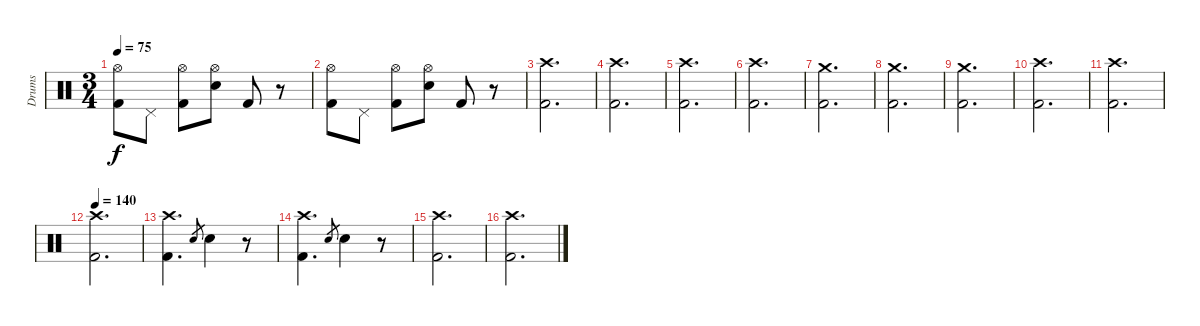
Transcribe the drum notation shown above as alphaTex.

\track ("Drums" "Drums") {instrument percussion}
\staff {score}
\articulation defaults
\ts (3 4)
\tempo 75
\clef neutral
\ks c
("Hi-Hat (open)" "Kick (hit) 2").8{dy f} "Pedal Hi-Hat (hit)".8 ("Hi-Hat (open)" "Kick (hit) 2").8 ("Hi-Hat (open)" "Electric Snare (hit)").8 "Kick (hit) 2".8 r.8 |
("Hi-Hat (open)" "Kick (hit) 2").8 "Pedal Hi-Hat (hit)".8 ("Hi-Hat (open)" "Kick (hit) 2").8 ("Hi-Hat (open)" "Electric Snare (hit)").8 "Kick (hit) 2".8 r.8 |
("Crash high (hit)" "Kick (hit) 2").2{d} |
("Crash high (hit)" "Kick (hit) 2").2{d} |
("Crash high (hit)" "Kick (hit) 2").2{d} |
("Crash high (hit)" "Kick (hit) 2").2{d} |
("Crash medium (hit)" "Kick (hit) 2").2{d} |
("Crash medium (hit)" "Kick (hit) 2").2{d} |
("Crash medium (hit)" "Kick (hit) 2").2{d} |
("Crash high (hit)" "Kick (hit) 2").2{d} |
("Crash high (hit)" "Kick (hit) 2").2{d} |
\tempo 140
("Crash high (hit)" "Kick (hit) 2").2{d} |
("Crash high (hit)" "Kick (hit) 2").4{d} "Electric Snare (hit)".8{gr} "Electric Snare (hit)".4 r.8 |
("Crash high (hit)" "Kick (hit) 2").4{d} "Electric Snare (hit)".8{gr} "Electric Snare (hit)".4 r.8 |
("Crash high (hit)" "Kick (hit) 2").2{d} |
("Crash high (hit)" "Kick (hit) 2").2{d}
